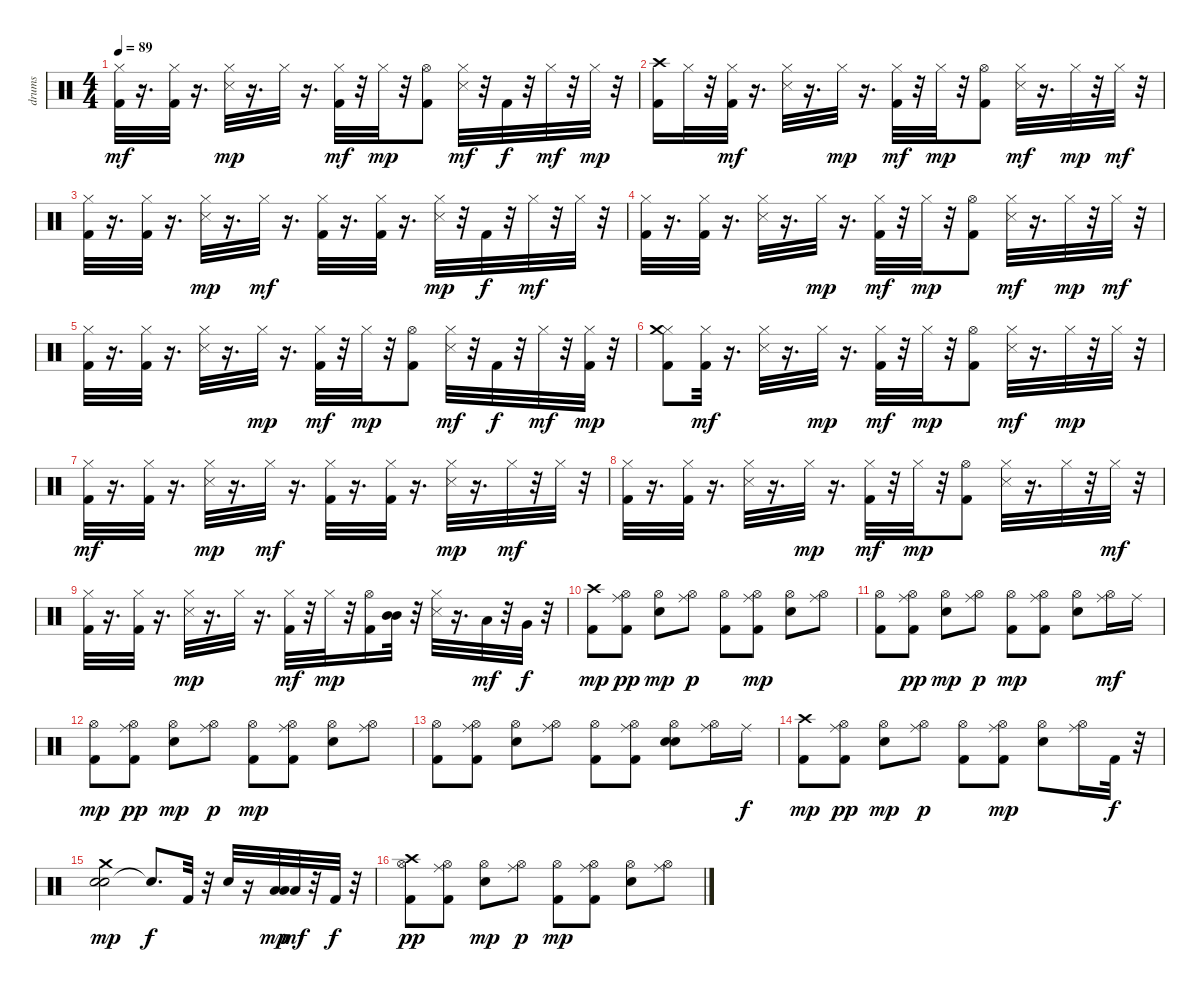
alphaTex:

\track ("drums" "drums") {instrument percussion}
\staff {score}
\articulation defaults
\ts (4 4)
\tempo 89
\clef neutral
\ks c
("Kick (hit) 2" "Hi-Hat (closed)").32{dy mf} r.16{d} ("Kick (hit) 2" "Hi-Hat (closed)").32 r.16{d} ("Snare (side stick) 3" "Hi-Hat (closed)").32{dy mp} r.16{d} "Hi-Hat (closed)".32 r.16{d} ("Kick (hit) 2" "Hi-Hat (closed)").32{dy mf} r.32 "Hi-Hat (closed)".32{dy mp} r.32 ("Kick (hit) 2" "Hi-Hat (open)").8 ("Snare (side stick) 3" "Hi-Hat (closed)").32{dy mf} r.32 "Kick (hit) 2".32{dy f} r.32 "Hi-Hat (closed)".32{dy mf} r.32 "Hi-Hat (closed)".32{dy mp} r.32 |
("Kick (hit) 2" "Crash high (hit)").16 "Hi-Hat (closed)".32 r.32 ("Kick (hit) 2" "Hi-Hat (closed)").32{dy mf} r.16{d} ("Snare (side stick) 3" "Hi-Hat (closed)").32 r.16{d} "Hi-Hat (closed)".32{dy mp} r.16{d} ("Kick (hit) 2" "Hi-Hat (closed)").32{dy mf} r.32 "Hi-Hat (closed)".32{dy mp} r.32 ("Kick (hit) 2" "Hi-Hat (open)").8 ("Snare (side stick) 3" "Hi-Hat (closed)").32{dy mf} r.16{d} "Hi-Hat (closed)".32{dy mp} r.32 "Hi-Hat (closed)".32{dy mf} r.32 |
("Kick (hit) 2" "Hi-Hat (closed)").32 r.16{d} ("Kick (hit) 2" "Hi-Hat (closed)").32 r.16{d} ("Snare (side stick) 3" "Hi-Hat (closed)").32{dy mp} r.16{d} "Hi-Hat (closed)".32{dy mf} r.16{d} ("Kick (hit) 2" "Hi-Hat (closed)").32 r.16{d} ("Kick (hit) 2" "Hi-Hat (closed)").32 r.16{d} ("Snare (side stick) 3" "Hi-Hat (closed)").32{dy mp} r.32 "Kick (hit) 2".32{dy f} r.32 "Hi-Hat (closed)".32{dy mf} r.32 "Hi-Hat (closed)".32 r.32 |
("Kick (hit) 2" "Hi-Hat (closed)").32 r.16{d} ("Kick (hit) 2" "Hi-Hat (closed)").32 r.16{d} ("Snare (side stick) 3" "Hi-Hat (closed)").32 r.16{d} "Hi-Hat (closed)".32{dy mp} r.16{d} ("Kick (hit) 2" "Hi-Hat (closed)").32{dy mf} r.32 "Hi-Hat (closed)".32{dy mp} r.32 ("Kick (hit) 2" "Hi-Hat (open)").8 ("Snare (side stick) 3" "Hi-Hat (closed)").32{dy mf} r.16{d} "Hi-Hat (closed)".32{dy mp} r.32 "Hi-Hat (closed)".32{dy mf} r.32 |
("Kick (hit) 2" "Hi-Hat (closed)").32 r.16{d} ("Kick (hit) 2" "Hi-Hat (closed)").32 r.16{d} ("Snare (side stick) 3" "Hi-Hat (closed)").32 r.16{d} "Hi-Hat (closed)".32{dy mp} r.16{d} ("Kick (hit) 2" "Hi-Hat (closed)").32{dy mf} r.32 "Hi-Hat (closed)".32{dy mp} r.32 ("Kick (hit) 2" "Hi-Hat (open)").8 ("Snare (side stick) 3" "Hi-Hat (closed)").32{dy mf} r.32 "Kick (hit) 2".32{dy f} r.32 "Hi-Hat (closed)".32{dy mf} r.32 ("Kick (hit) 2" "Hi-Hat (closed)").32{dy mp} r.32 |
("Kick (hit) 2" "Hi-Hat (closed)" "Crash medium (hit)").8 ("Kick (hit) 2" "Hi-Hat (closed)").32{dy mf} r.16{d} ("Snare (side stick) 3" "Hi-Hat (closed)").32 r.16{d} "Hi-Hat (closed)".32{dy mp} r.16{d} ("Kick (hit) 2" "Hi-Hat (closed)").32{dy mf} r.32 "Hi-Hat (closed)".32{dy mp} r.32 ("Kick (hit) 2" "Hi-Hat (open)").8 ("Snare (side stick) 3" "Hi-Hat (closed)").32{dy mf} r.16{d} "Hi-Hat (closed)".32{dy mp} r.32 "Hi-Hat (closed)".32 r.32 |
("Kick (hit) 2" "Hi-Hat (closed)").32{dy mf} r.16{d} ("Kick (hit) 2" "Hi-Hat (closed)").32 r.16{d} ("Snare (side stick) 3" "Hi-Hat (closed)").32{dy mp} r.16{d} "Hi-Hat (closed)".32{dy mf} r.16{d} ("Kick (hit) 2" "Hi-Hat (closed)").32 r.16{d} ("Kick (hit) 2" "Hi-Hat (closed)").32 r.16{d} ("Snare (side stick) 3" "Hi-Hat (closed)").32{dy mp} r.16{d} "Hi-Hat (closed)".32{dy mf} r.32 "Hi-Hat (closed)".32 r.32 |
("Kick (hit) 2" "Hi-Hat (closed)").32 r.16{d} ("Kick (hit) 2" "Hi-Hat (closed)").32 r.16{d} ("Snare (side stick) 3" "Hi-Hat (closed)").32 r.16{d} "Hi-Hat (closed)".32{dy mp} r.16{d} ("Kick (hit) 2" "Hi-Hat (closed)").32{dy mf} r.32 "Hi-Hat (closed)".32{dy mp} r.32 ("Kick (hit) 2" "Hi-Hat (open)").8 ("Snare (side stick) 3" "Hi-Hat (closed)").32 r.16{d} "Hi-Hat (closed)".32 r.32 "Hi-Hat (closed)".32{dy mf} r.32 |
("Kick (hit) 2" "Hi-Hat (closed)").32 r.16{d} ("Kick (hit) 2" "Hi-Hat (closed)").32 r.16{d} ("Snare (side stick) 3" "Hi-Hat (closed)").32{dy mp} r.16{d} "Hi-Hat (closed)".32 r.16{d} ("Kick (hit) 2" "Hi-Hat (closed)").32{dy mf} r.32 "Hi-Hat (closed)".32{dy mp} r.32 ("Kick (hit) 2" "Hi-Hat (open)").16 ("Mid Tom (hit)" "Mid Tom (hit)").32 r.32 ("Snare (side stick) 3" "Hi-Hat (closed)").32 r.16{d} "Low Tom (hit)".32{dy mf} r.32 "Very Low Tom (hit)".32{dy f} r.32 |
("Kick (hit) 2" "Crash high (hit)").8{dy mp} ("Kick (hit) 2" "Hi-Hat (open)" "Ride (middle)").8{dy pp} ("Snare (hit) 2" "Hi-Hat (open)").8{dy mp} ("Hi-Hat (open)" "Ride (middle)").8{dy p} ("Kick (hit) 2" "Hi-Hat (open)").8 ("Kick (hit) 2" "Hi-Hat (open)" "Ride (middle)").8{dy mp} ("Snare (hit) 2" "Hi-Hat (open)").8 ("Hi-Hat (open)" "Ride (middle)").8 |
("Kick (hit) 2" "Hi-Hat (open)").8 ("Kick (hit) 2" "Hi-Hat (open)" "Ride (middle)").8{dy pp} ("Snare (hit) 2" "Hi-Hat (open)").8{dy mp} ("Hi-Hat (open)" "Ride (middle)").8{dy p} ("Kick (hit) 2" "Hi-Hat (open)").8{dy mp} ("Kick (hit) 2" "Hi-Hat (open)" "Ride (middle)").8 ("Snare (hit) 2" "Hi-Hat (open)").8 ("Hi-Hat (open)" "Ride (middle)").16{dy mf} "Ride (middle)".16 |
("Kick (hit) 2" "Hi-Hat (open)").8{dy mp} ("Kick (hit) 2" "Hi-Hat (open)" "Ride (middle)").8{dy pp} ("Snare (hit) 2" "Hi-Hat (open)").8{dy mp} ("Hi-Hat (open)" "Ride (middle)").8{dy p} ("Kick (hit) 2" "Hi-Hat (open)").8{dy mp} ("Kick (hit) 2" "Hi-Hat (open)" "Ride (middle)").8 ("Snare (hit) 2" "Hi-Hat (open)").8 ("Hi-Hat (open)" "Ride (middle)").8 |
("Kick (hit) 2" "Hi-Hat (open)").8 ("Kick (hit) 2" "Hi-Hat (open)" "Ride (middle)").8 ("Snare (hit) 2" "Hi-Hat (open)").8 ("Hi-Hat (open)" "Ride (middle)").8 ("Kick (hit) 2" "Hi-Hat (open)").8 ("Kick (hit) 2" "Hi-Hat (open)" "Ride (middle)").8 ("Snare (hit) 2" "Snare (hit) 2" "Hi-Hat (open)").8 ("Hi-Hat (open)" "Ride (middle)").16 "Ride (middle)".16{dy f} |
("Kick (hit) 2" "Crash high (hit)").8{dy mp} ("Kick (hit) 2" "Hi-Hat (open)" "Ride (middle)").8{dy pp} ("Snare (hit) 2" "Hi-Hat (open)").8{dy mp} ("Hi-Hat (open)" "Ride (middle)").8{dy p} ("Kick (hit) 2" "Hi-Hat (open)").8 ("Kick (hit) 2" "Hi-Hat (open)" "Ride (middle)").8{dy mp} ("Snare (hit) 2" "Hi-Hat (open)").8 ("Hi-Hat (open)" "Ride (middle)").16 "Kick (hit) 2".32{dy f} r.32 |
("Snare (hit) 2" "Snare (hit) 2" "Crash medium (hit)").2{dy mp} "Snare (hit)"{t}.8{d dy f} "Kick (hit) 2".32 r.32 "Snare (hit) 2".32 r.16 ("Low Tom (hit)" "Low Tom (hit)").32{dy mp} "Low Tom (hit)".32{dy mf} r.32 "Kick (hit) 2".32{dy f} r.32 |
("Kick (hit) 2" "Hi-Hat (open)" "Crash high (hit)").8{dy pp} ("Kick (hit) 2" "Hi-Hat (open)" "Ride (middle)").8 ("Snare (hit) 2" "Hi-Hat (open)").8{dy mp} ("Hi-Hat (open)" "Ride (middle)").8{dy p} ("Kick (hit) 2" "Hi-Hat (open)").8{dy mp} ("Kick (hit) 2" "Hi-Hat (open)" "Ride (middle)").8 ("Snare (hit) 2" "Hi-Hat (open)").8 ("Hi-Hat (open)" "Ride (middle)").8
